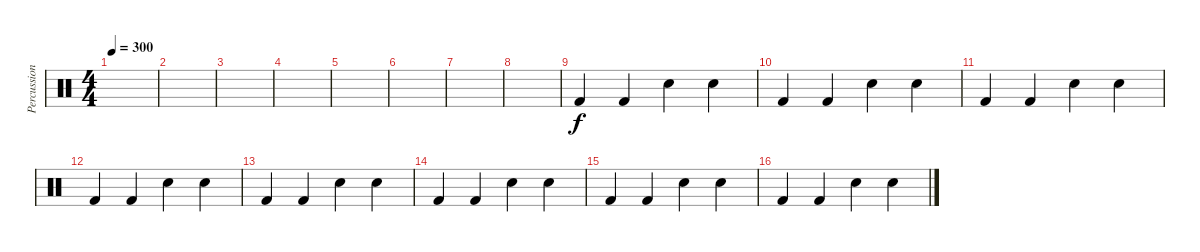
\track ("Percussion" "Percussion") {instrument percussion}
\staff {score}
\articulation defaults
\ts (4 4)
\tempo 300
\clef neutral
\ks c
|
|
|
|
|
|
|
|
"Kick (hit) 2".4 "Kick (hit) 2".4 "Snare (hit) 2".4 "Snare (hit) 2".4 |
"Kick (hit) 2".4 "Kick (hit) 2".4 "Snare (hit) 2".4 "Snare (hit) 2".4 |
"Kick (hit) 2".4 "Kick (hit) 2".4 "Snare (hit) 2".4 "Snare (hit) 2".4 |
"Kick (hit) 2".4 "Kick (hit) 2".4 "Snare (hit) 2".4 "Snare (hit) 2".4 |
"Kick (hit) 2".4 "Kick (hit) 2".4 "Snare (hit) 2".4 "Snare (hit) 2".4 |
"Kick (hit) 2".4 "Kick (hit) 2".4 "Snare (hit) 2".4 "Snare (hit) 2".4 |
"Kick (hit) 2".4 "Kick (hit) 2".4 "Snare (hit) 2".4 "Snare (hit) 2".4 |
"Kick (hit) 2".4 "Kick (hit) 2".4 "Snare (hit) 2".4 "Snare (hit) 2".4
